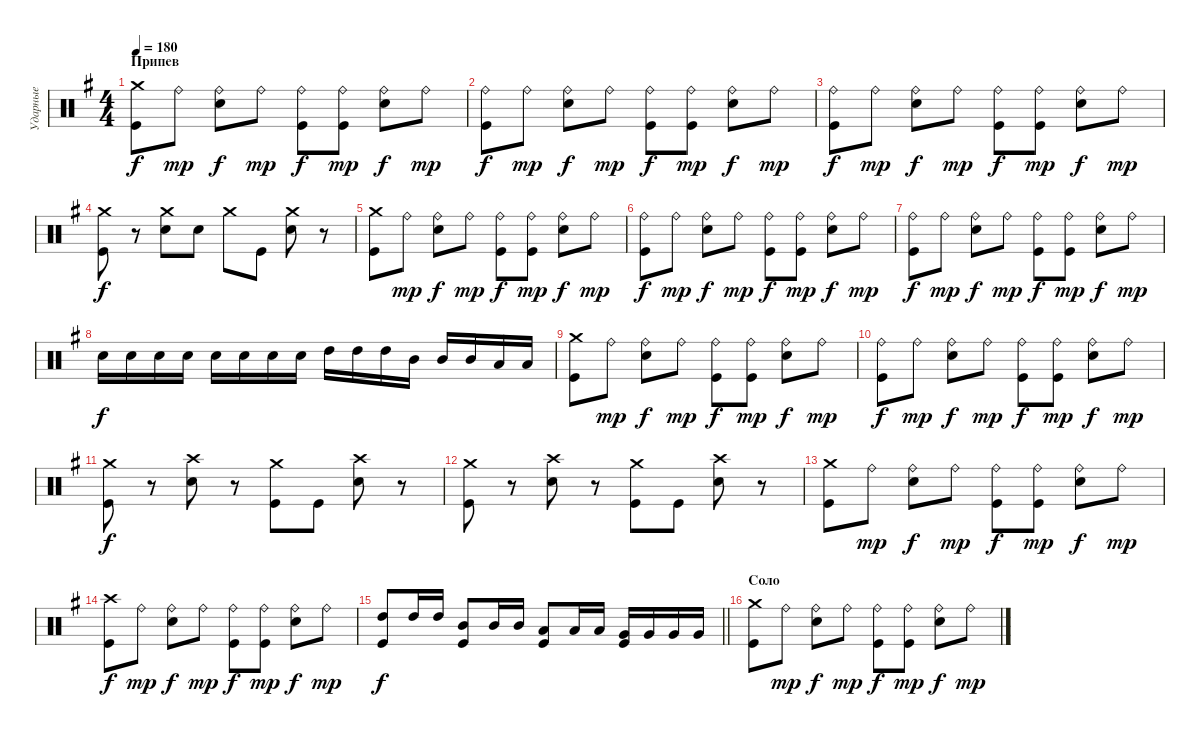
\track ("Ударные" "Ударные") {instrument percussion}
\staff {score}
\articulation defaults
\ts (4 4)
\section ("" "Припев")
\tempo 180
\clef neutral
\ks g
("Crash medium (hit)" "Kick (hit)").8{dy f} "Ride (bell)".8{dy mp} ("Ride (bell)" "Electric Snare (hit)").8{dy f} "Ride (bell)".8{dy mp} ("Ride (bell)" "Kick (hit)").8{dy f} ("Ride (bell)" "Kick (hit)").8{dy mp} ("Ride (bell)" "Electric Snare (hit)").8{dy f} "Ride (bell)".8{dy mp} |
("Ride (bell)" "Kick (hit)").8{dy f} "Ride (bell)".8{dy mp} ("Ride (bell)" "Electric Snare (hit)").8{dy f} "Ride (bell)".8{dy mp} ("Ride (bell)" "Kick (hit)").8{dy f} ("Ride (bell)" "Kick (hit)").8{dy mp} ("Ride (bell)" "Electric Snare (hit)").8{dy f} "Ride (bell)".8{dy mp} |
("Ride (bell)" "Kick (hit)").8{dy f} "Ride (bell)".8{dy mp} ("Ride (bell)" "Electric Snare (hit)").8{dy f} "Ride (bell)".8{dy mp} ("Ride (bell)" "Kick (hit)").8{dy f} ("Ride (bell)" "Kick (hit)").8{dy mp} ("Ride (bell)" "Electric Snare (hit)").8{dy f} "Ride (bell)".8{dy mp} |
("Crash medium (hit)" "Kick (hit)").8{dy f} r.8 ("Crash medium (hit)" "Electric Snare (hit)").8 "Electric Snare (hit)".8 "Crash medium (hit)".8 "Kick (hit)".8 ("Crash medium (hit)" "Electric Snare (hit)").8 r.8 |
("Crash medium (hit)" "Kick (hit)").8 "Ride (bell)".8{dy mp} ("Ride (bell)" "Electric Snare (hit)").8{dy f} "Ride (bell)".8{dy mp} ("Ride (bell)" "Kick (hit)").8{dy f} ("Ride (bell)" "Kick (hit)").8{dy mp} ("Ride (bell)" "Electric Snare (hit)").8{dy f} "Ride (bell)".8{dy mp} |
("Ride (bell)" "Kick (hit)").8{dy f} "Ride (bell)".8{dy mp} ("Ride (bell)" "Electric Snare (hit)").8{dy f} "Ride (bell)".8{dy mp} ("Ride (bell)" "Kick (hit)").8{dy f} ("Ride (bell)" "Kick (hit)").8{dy mp} ("Ride (bell)" "Electric Snare (hit)").8{dy f} "Ride (bell)".8{dy mp} |
("Ride (bell)" "Kick (hit)").8{dy f} "Ride (bell)".8{dy mp} ("Ride (bell)" "Electric Snare (hit)").8{dy f} "Ride (bell)".8{dy mp} ("Ride (bell)" "Kick (hit)").8{dy f} ("Ride (bell)" "Kick (hit)").8{dy mp} ("Ride (bell)" "Electric Snare (hit)").8{dy f} "Ride (bell)".8{dy mp} |
"Electric Snare (hit)".16{dy f} "Electric Snare (hit)".16 "Electric Snare (hit)".16 "Electric Snare (hit)".16 "Electric Snare (hit)".16 "Electric Snare (hit)".16 "Electric Snare (hit)".16 "Electric Snare (hit)".16 "High Tom (hit)".16 "High Tom (hit)".16 "High Tom (hit)".16 "Mid Tom (hit)".16 "Mid Tom (hit)".16 "Mid Tom (hit)".16 "Low Tom (hit)".16 "Low Tom (hit)".16 |
("Crash medium (hit)" "Kick (hit)").8 "Ride (bell)".8{dy mp} ("Ride (bell)" "Electric Snare (hit)").8{dy f} "Ride (bell)".8{dy mp} ("Ride (bell)" "Kick (hit)").8{dy f} ("Ride (bell)" "Kick (hit)").8{dy mp} ("Ride (bell)" "Electric Snare (hit)").8{dy f} "Ride (bell)".8{dy mp} |
("Ride (bell)" "Kick (hit)").8{dy f} "Ride (bell)".8{dy mp} ("Ride (bell)" "Electric Snare (hit)").8{dy f} "Ride (bell)".8{dy mp} ("Ride (bell)" "Kick (hit)").8{dy f} ("Ride (bell)" "Kick (hit)").8{dy mp} ("Ride (bell)" "Electric Snare (hit)").8{dy f} "Ride (bell)".8{dy mp} |
("Crash medium (hit)" "Kick (hit)").8{dy f} r.8 ("Crash high (hit)" "Electric Snare (hit)").8 r.8 ("Crash medium (hit)" "Kick (hit)").8 "Kick (hit)".8 ("Crash high (hit)" "Electric Snare (hit)").8 r.8 |
("Crash medium (hit)" "Kick (hit)").8 r.8 ("Crash high (hit)" "Electric Snare (hit)").8 r.8 ("Crash medium (hit)" "Kick (hit)").8 "Kick (hit)".8 ("Crash high (hit)" "Electric Snare (hit)").8 r.8 |
("Crash medium (hit)" "Kick (hit)").8 "Ride (bell)".8{dy mp} ("Ride (bell)" "Electric Snare (hit)").8{dy f} "Ride (bell)".8{dy mp} ("Ride (bell)" "Kick (hit)").8{dy f} ("Ride (bell)" "Kick (hit)").8{dy mp} ("Ride (bell)" "Electric Snare (hit)").8{dy f} "Ride (bell)".8{dy mp} |
("Crash high (hit)" "Kick (hit)").8{dy f} "Ride (bell)".8{dy mp} ("Ride (bell)" "Electric Snare (hit)").8{dy f} "Ride (bell)".8{dy mp} ("Ride (bell)" "Kick (hit)").8{dy f} ("Ride (bell)" "Kick (hit)").8{dy mp} ("Ride (bell)" "Electric Snare (hit)").8{dy f} "Ride (bell)".8{dy mp} |
\barLineRight lightlight
("High Tom (hit)" "Kick (hit)").8{dy f} "High Tom (hit)".16 "High Tom (hit)".16 ("Mid Tom (hit)" "Kick (hit)").8 "Mid Tom (hit)".16 "Mid Tom (hit)".16 ("Low Tom (hit)" "Kick (hit)").8 "Low Tom (hit)".16 "Low Tom (hit)".16 ("Very Low Tom (hit)" "Kick (hit)").16 "Very Low Tom (hit)".16 "Very Low Tom (hit)".16 "Very Low Tom (hit)".16 |
\section ("" "Соло")
("Crash medium (hit)" "Kick (hit)").8 "Ride (bell)".8{dy mp} ("Ride (bell)" "Electric Snare (hit)").8{dy f} "Ride (bell)".8{dy mp} ("Ride (bell)" "Kick (hit)").8{dy f} ("Ride (bell)" "Kick (hit)").8{dy mp} ("Ride (bell)" "Electric Snare (hit)").8{dy f} "Ride (bell)".8{dy mp}
